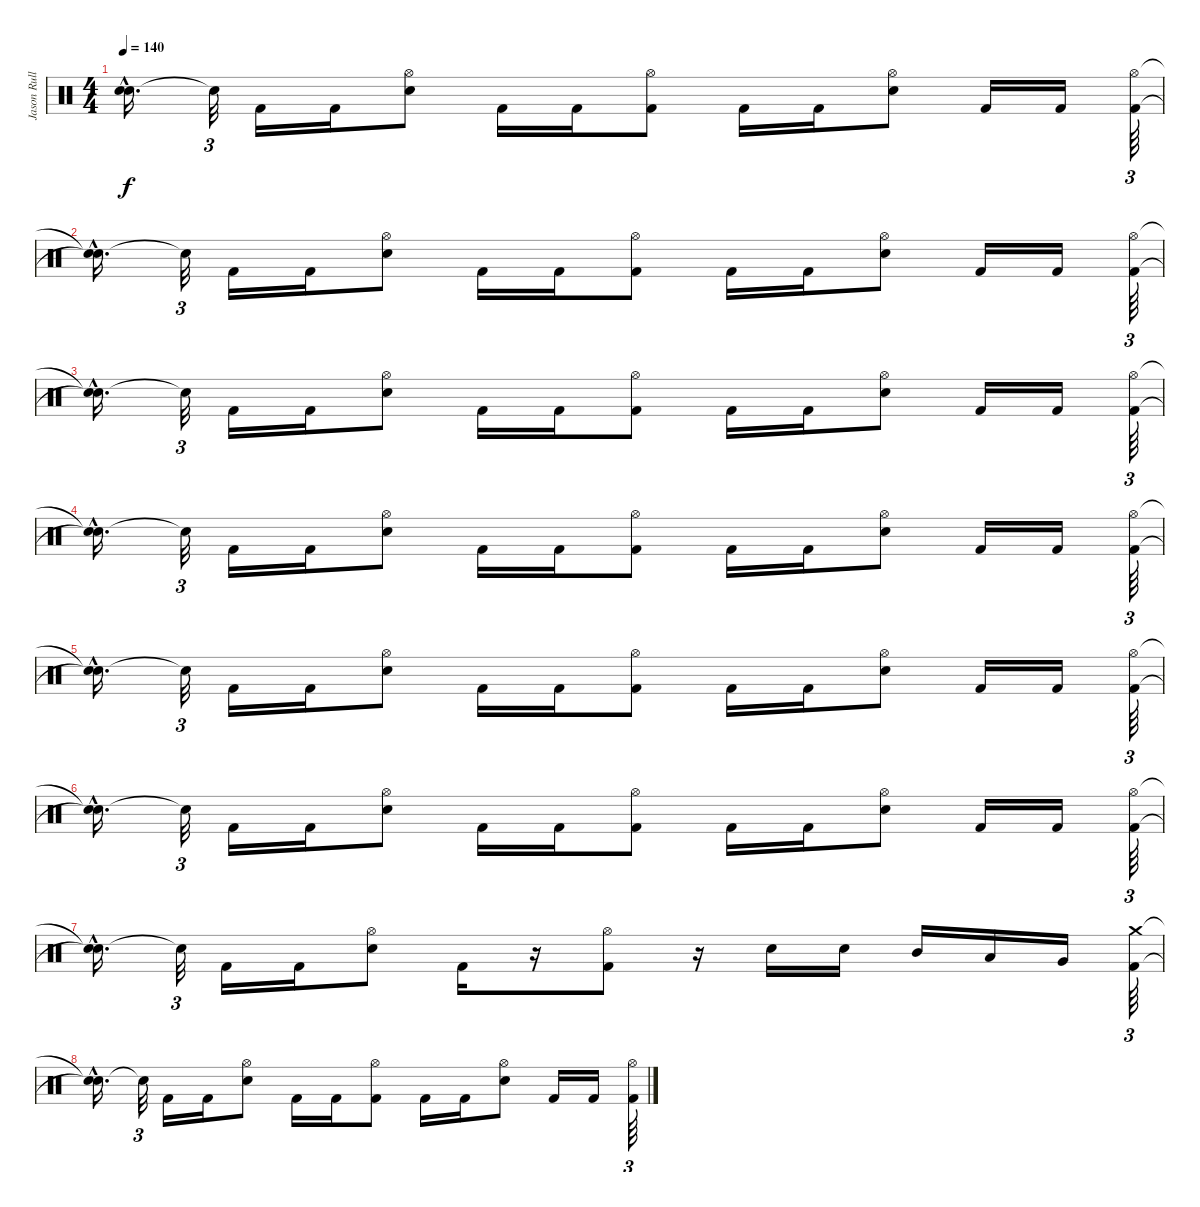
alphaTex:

\track ("Jason Rullo" "Jason Rull") {instrument percussion}
\staff {score}
\articulation defaults
\ts (4 4)
\tempo 140
\clef neutral
\ks c
("Snare (hit)"{hac t} "Snare (hit)"{hac t}).16{d dy f} "Snare (hit)"{t}.32{tu (3 2)} "Kick (hit) 2".16 "Kick (hit) 2".16 ("Hi-Hat (open)" "Electric Snare (hit)").8 "Kick (hit) 2".16 "Kick (hit) 2".16 ("Hi-Hat (open)" "Kick (hit) 2").8 "Kick (hit) 2".16 "Kick (hit) 2".16 ("Hi-Hat (open)" "Electric Snare (hit)").8 "Kick (hit) 2".16 "Kick (hit) 2".16 ("Hi-Hat (open)" "Kick (hit) 2").64{tu (3 2)} |
("Snare (hit)"{hac t} "Snare (hit)"{hac t}).16{d} "Snare (hit)"{t}.32{tu (3 2)} "Kick (hit) 2".16 "Kick (hit) 2".16 ("Hi-Hat (open)" "Electric Snare (hit)").8 "Kick (hit) 2".16 "Kick (hit) 2".16 ("Hi-Hat (open)" "Kick (hit) 2").8 "Kick (hit) 2".16 "Kick (hit) 2".16 ("Hi-Hat (open)" "Electric Snare (hit)").8 "Kick (hit) 2".16 "Kick (hit) 2".16 ("Hi-Hat (open)" "Kick (hit) 2").64{tu (3 2)} |
("Snare (hit)"{hac t} "Snare (hit)"{hac t}).16{d} "Snare (hit)"{t}.32{tu (3 2)} "Kick (hit) 2".16 "Kick (hit) 2".16 ("Hi-Hat (open)" "Electric Snare (hit)").8 "Kick (hit) 2".16 "Kick (hit) 2".16 ("Hi-Hat (open)" "Kick (hit) 2").8 "Kick (hit) 2".16 "Kick (hit) 2".16 ("Hi-Hat (open)" "Electric Snare (hit)").8 "Kick (hit) 2".16 "Kick (hit) 2".16 ("Hi-Hat (open)" "Kick (hit) 2").64{tu (3 2)} |
("Snare (hit)"{hac t} "Snare (hit)"{hac t}).16{d} "Snare (hit)"{t}.32{tu (3 2)} "Kick (hit) 2".16 "Kick (hit) 2".16 ("Hi-Hat (open)" "Electric Snare (hit)").8 "Kick (hit) 2".16 "Kick (hit) 2".16 ("Hi-Hat (open)" "Kick (hit) 2").8 "Kick (hit) 2".16 "Kick (hit) 2".16 ("Hi-Hat (open)" "Electric Snare (hit)").8 "Kick (hit) 2".16 "Kick (hit) 2".16 ("Hi-Hat (open)" "Kick (hit) 2").64{tu (3 2)} |
("Snare (hit)"{hac t} "Snare (hit)"{hac t}).16{d} "Snare (hit)"{t}.32{tu (3 2)} "Kick (hit) 2".16 "Kick (hit) 2".16 ("Hi-Hat (open)" "Electric Snare (hit)").8 "Kick (hit) 2".16 "Kick (hit) 2".16 ("Hi-Hat (open)" "Kick (hit) 2").8 "Kick (hit) 2".16 "Kick (hit) 2".16 ("Hi-Hat (open)" "Electric Snare (hit)").8 "Kick (hit) 2".16 "Kick (hit) 2".16 ("Hi-Hat (open)" "Kick (hit) 2").64{tu (3 2)} |
("Snare (hit)"{hac t} "Snare (hit)"{hac t}).16{d} "Snare (hit)"{t}.32{tu (3 2)} "Kick (hit) 2".16 "Kick (hit) 2".16 ("Hi-Hat (open)" "Electric Snare (hit)").8 "Kick (hit) 2".16 "Kick (hit) 2".16 ("Hi-Hat (open)" "Kick (hit) 2").8 "Kick (hit) 2".16 "Kick (hit) 2".16 ("Hi-Hat (open)" "Electric Snare (hit)").8 "Kick (hit) 2".16 "Kick (hit) 2".16 ("Hi-Hat (open)" "Kick (hit) 2").64{tu (3 2)} |
("Snare (hit)"{hac t} "Snare (hit)"{hac t}).16{d} "Snare (hit)"{t}.32{tu (3 2)} "Kick (hit) 2".16 "Kick (hit) 2".16 ("Hi-Hat (open)" "Electric Snare (hit)").8 "Kick (hit) 2".16 r.16 ("Hi-Hat (open)" "Kick (hit) 2").8 r.16 "Electric Snare (hit)".16 "Electric Snare (hit)".16 "Mid Tom (hit)".16 "Low Tom (hit)".16 "Very Low Tom (hit)".16 ("Crash medium (hit)" "Kick (hit) 2").64{tu (3 2)} |
("Snare (hit)"{hac t} "Snare (hit)"{hac t}).16{d} "Snare (hit)"{t}.32{tu (3 2)} "Kick (hit) 2".16 "Kick (hit) 2".16 ("Hi-Hat (open)" "Electric Snare (hit)").8 "Kick (hit) 2".16 "Kick (hit) 2".16 ("Hi-Hat (open)" "Kick (hit) 2").8 "Kick (hit) 2".16 "Kick (hit) 2".16 ("Hi-Hat (open)" "Electric Snare (hit)").8 "Kick (hit) 2".16 "Kick (hit) 2".16 ("Hi-Hat (open)" "Kick (hit) 2").64{tu (3 2)}
